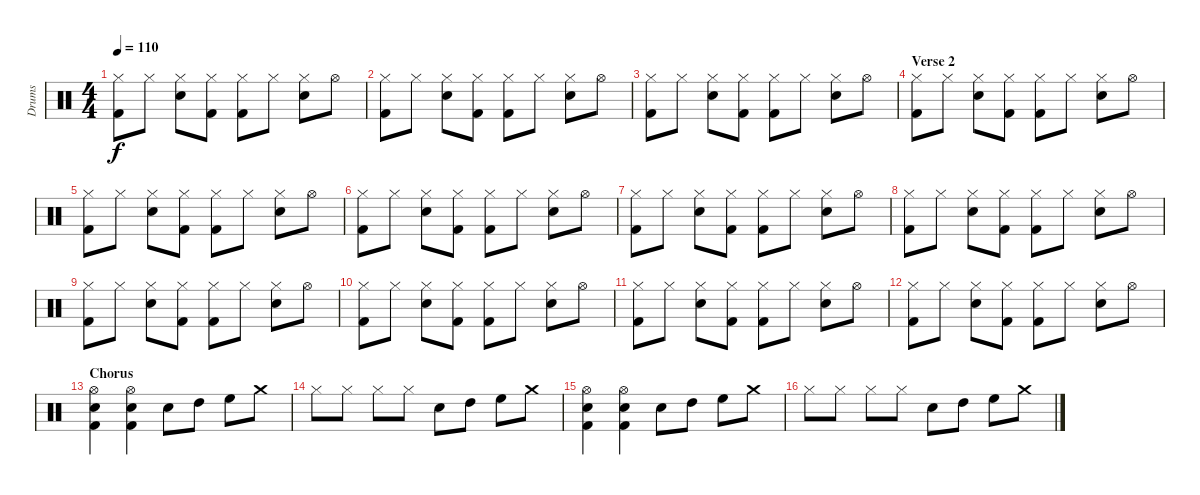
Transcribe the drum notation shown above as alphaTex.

\track ("Drums" "Drums") {instrument percussion}
\staff {score}
\articulation defaults
\ts (4 4)
\tempo 110
\clef neutral
\ks c
("Hi-Hat (closed)" "Kick (hit) 2").8{dy f} "Hi-Hat (closed)".8 ("Hi-Hat (closed)" "Snare (hit) 2").8 ("Hi-Hat (closed)" "Kick (hit) 2").8 ("Hi-Hat (closed)" "Kick (hit) 2").8 "Hi-Hat (closed)".8 ("Hi-Hat (closed)" "Snare (hit) 2").8 "Hi-Hat (open)".8 |
("Hi-Hat (closed)" "Kick (hit) 2").8 "Hi-Hat (closed)".8 ("Hi-Hat (closed)" "Snare (hit) 2").8 ("Hi-Hat (closed)" "Kick (hit) 2").8 ("Hi-Hat (closed)" "Kick (hit) 2").8 "Hi-Hat (closed)".8 ("Hi-Hat (closed)" "Snare (hit) 2").8 "Hi-Hat (open)".8 |
("Hi-Hat (closed)" "Kick (hit) 2").8 "Hi-Hat (closed)".8 ("Hi-Hat (closed)" "Snare (hit) 2").8 ("Hi-Hat (closed)" "Kick (hit) 2").8 ("Hi-Hat (closed)" "Kick (hit) 2").8 "Hi-Hat (closed)".8 ("Hi-Hat (closed)" "Snare (hit) 2").8 "Hi-Hat (open)".8 |
\section ("" "Verse 2")
("Hi-Hat (closed)" "Kick (hit) 2").8 "Hi-Hat (closed)".8 ("Hi-Hat (closed)" "Snare (hit) 2").8 ("Hi-Hat (closed)" "Kick (hit) 2").8 ("Hi-Hat (closed)" "Kick (hit) 2").8 "Hi-Hat (closed)".8 ("Hi-Hat (closed)" "Snare (hit) 2").8 "Hi-Hat (open)".8 |
("Hi-Hat (closed)" "Kick (hit) 2").8 "Hi-Hat (closed)".8 ("Hi-Hat (closed)" "Snare (hit) 2").8 ("Hi-Hat (closed)" "Kick (hit) 2").8 ("Hi-Hat (closed)" "Kick (hit) 2").8 "Hi-Hat (closed)".8 ("Hi-Hat (closed)" "Snare (hit) 2").8 "Hi-Hat (open)".8 |
("Hi-Hat (closed)" "Kick (hit) 2").8 "Hi-Hat (closed)".8 ("Hi-Hat (closed)" "Snare (hit) 2").8 ("Hi-Hat (closed)" "Kick (hit) 2").8 ("Hi-Hat (closed)" "Kick (hit) 2").8 "Hi-Hat (closed)".8 ("Hi-Hat (closed)" "Snare (hit) 2").8 "Hi-Hat (open)".8 |
("Hi-Hat (closed)" "Kick (hit) 2").8 "Hi-Hat (closed)".8 ("Hi-Hat (closed)" "Snare (hit) 2").8 ("Hi-Hat (closed)" "Kick (hit) 2").8 ("Hi-Hat (closed)" "Kick (hit) 2").8 "Hi-Hat (closed)".8 ("Hi-Hat (closed)" "Snare (hit) 2").8 "Hi-Hat (open)".8 |
("Hi-Hat (closed)" "Kick (hit) 2").8 "Hi-Hat (closed)".8 ("Hi-Hat (closed)" "Snare (hit) 2").8 ("Hi-Hat (closed)" "Kick (hit) 2").8 ("Hi-Hat (closed)" "Kick (hit) 2").8 "Hi-Hat (closed)".8 ("Hi-Hat (closed)" "Snare (hit) 2").8 "Hi-Hat (open)".8 |
("Hi-Hat (closed)" "Kick (hit) 2").8 "Hi-Hat (closed)".8 ("Hi-Hat (closed)" "Snare (hit) 2").8 ("Hi-Hat (closed)" "Kick (hit) 2").8 ("Hi-Hat (closed)" "Kick (hit) 2").8 "Hi-Hat (closed)".8 ("Hi-Hat (closed)" "Snare (hit) 2").8 "Hi-Hat (open)".8 |
("Hi-Hat (closed)" "Kick (hit) 2").8 "Hi-Hat (closed)".8 ("Hi-Hat (closed)" "Snare (hit) 2").8 ("Hi-Hat (closed)" "Kick (hit) 2").8 ("Hi-Hat (closed)" "Kick (hit) 2").8 "Hi-Hat (closed)".8 ("Hi-Hat (closed)" "Snare (hit) 2").8 "Hi-Hat (open)".8 |
("Hi-Hat (closed)" "Kick (hit) 2").8 "Hi-Hat (closed)".8 ("Hi-Hat (closed)" "Snare (hit) 2").8 ("Hi-Hat (closed)" "Kick (hit) 2").8 ("Hi-Hat (closed)" "Kick (hit) 2").8 "Hi-Hat (closed)".8 ("Hi-Hat (closed)" "Snare (hit) 2").8 "Hi-Hat (open)".8 |
("Hi-Hat (closed)" "Kick (hit) 2").8 "Hi-Hat (closed)".8 ("Hi-Hat (closed)" "Snare (hit) 2").8 ("Hi-Hat (closed)" "Kick (hit) 2").8 ("Hi-Hat (closed)" "Kick (hit) 2").8 "Hi-Hat (closed)".8 ("Hi-Hat (closed)" "Snare (hit) 2").8 "Hi-Hat (open)".8 |
\section ("" "Chorus")
("Snare (hit) 2" "Kick (hit) 2" "Hi-Hat (open)").4 ("Snare (hit) 2" "Kick (hit) 2" "Hi-Hat (open)").4 "Electric Snare (hit)".8 "High Tom (hit)".8 "High Floor Tom (hit)".8 "Crash medium (hit)".8 |
"Hi-Hat (closed)".8 "Hi-Hat (closed)".8 "Hi-Hat (closed)".8 "Hi-Hat (closed)".8 "Electric Snare (hit)".8 "High Tom (hit)".8 "High Floor Tom (hit)".8 "Crash medium (hit)".8 |
("Snare (hit) 2" "Kick (hit) 2" "Hi-Hat (open)").4 ("Snare (hit) 2" "Kick (hit) 2" "Hi-Hat (open)").4 "Electric Snare (hit)".8 "High Tom (hit)".8 "High Floor Tom (hit)".8 "Crash medium (hit)".8 |
"Hi-Hat (closed)".8 "Hi-Hat (closed)".8 "Hi-Hat (closed)".8 "Hi-Hat (closed)".8 "Electric Snare (hit)".8 "High Tom (hit)".8 "High Floor Tom (hit)".8 "Crash medium (hit)".8
